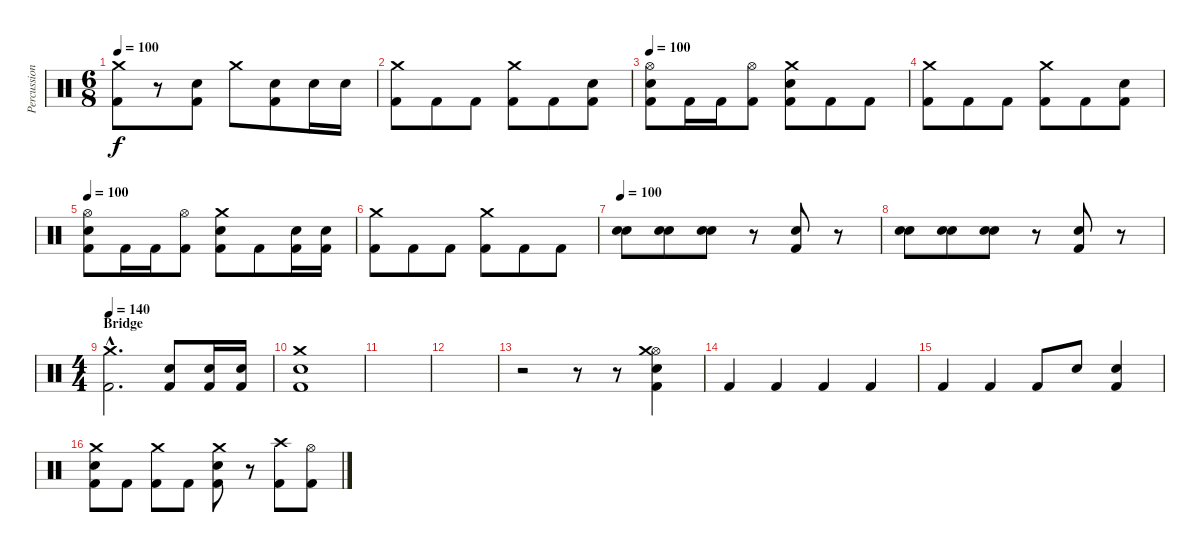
\track ("Percussion" "Percussion") {instrument percussion}
\staff {score}
\articulation defaults
\ts (6 8)
\tempo 100
\clef neutral
\ks c
("Crash medium (hit)" "Kick (hit) 2").8{dy f} r.8 ("Snare (hit) 2" "Kick (hit) 2").8 "Crash medium (hit)".8 ("Snare (hit) 2" "Kick (hit) 2").8 "Snare (hit) 2".16 "Snare (hit) 2".16 |
("Crash medium (hit)" "Kick (hit) 2").8 "Kick (hit) 2".8 "Kick (hit) 2".8 ("Crash medium (hit)" "Kick (hit) 2").8 "Kick (hit) 2".8 ("Snare (hit) 2" "Kick (hit) 2").8 |
\tempo 100
("Hi-Hat (open)" "Snare (hit) 2" "Kick (hit) 2").8 "Kick (hit) 2".16 "Kick (hit) 2".16 ("Hi-Hat (open)" "Kick (hit) 2").8 ("Crash medium (hit)" "Snare (hit) 2" "Kick (hit) 2").8 "Kick (hit) 2".8 "Kick (hit) 2".8 |
("Crash medium (hit)" "Kick (hit) 2").8 "Kick (hit) 2".8 "Kick (hit) 2".8 ("Crash medium (hit)" "Kick (hit) 2").8 "Kick (hit) 2".8 ("Snare (hit) 2" "Kick (hit) 2").8 |
\tempo 100
("Hi-Hat (open)" "Snare (hit) 2" "Kick (hit) 2").8 "Kick (hit) 2".16 "Kick (hit) 2".16 ("Hi-Hat (open)" "Kick (hit) 2").8 ("Crash medium (hit)" "Snare (hit) 2" "Kick (hit) 2").8 "Kick (hit) 2".8 ("Snare (hit) 2" "Kick (hit) 2").16 ("Snare (hit) 2" "Kick (hit) 2").16 |
("Crash medium (hit)" "Kick (hit) 2").8 "Kick (hit) 2".8 "Kick (hit) 2".8 ("Crash medium (hit)" "Kick (hit) 2").8 "Kick (hit) 2".8 "Kick (hit) 2".8 |
\tempo 100
("Snare (hit) 2" "Snare (hit) 2").8 ("Snare (hit) 2" "Snare (hit) 2").8 ("Snare (hit) 2" "Snare (hit) 2").8 r.8 ("Snare (hit) 2" "Kick (hit) 2").8 r.8 |
("Snare (hit) 2" "Snare (hit) 2").8 ("Snare (hit) 2" "Snare (hit) 2").8 ("Snare (hit) 2" "Snare (hit) 2").8 r.8 ("Snare (hit) 2" "Kick (hit) 2").8 r.8 |
\ts (4 4)
\section ("" "Bridge")
\tempo 140
("Crash medium (hit)"{hac} "Kick (hit) 2"{hac}).2{d} ("Snare (hit) 2" "Kick (hit) 2").8 ("Snare (hit) 2" "Kick (hit) 2").16 ("Snare (hit) 2" "Kick (hit) 2").16 |
("Crash medium (hit)" "Snare (hit) 2" "Kick (hit) 2").1 |
|
|
r.2 r.8 r.8 ("Hi-Hat (open)" "Crash medium (hit)" "Snare (hit) 2" "Kick (hit) 2").4 |
"Kick (hit) 2".4 "Kick (hit) 2".4 "Kick (hit) 2".4 "Kick (hit) 2".4 |
"Kick (hit) 2".4 "Kick (hit) 2".4 "Kick (hit) 2".8 "Snare (hit) 2".8 ("Snare (hit) 2" "Kick (hit) 2").4 |
("Crash medium (hit)" "Snare (hit) 2" "Kick (hit) 2").8 "Kick (hit) 2".8 ("Crash medium (hit)" "Kick (hit) 2").8 "Kick (hit) 2".8 ("Crash medium (hit)" "Snare (hit) 2" "Kick (hit) 2").8 r.8 ("Crash high (hit)" "Kick (hit) 2").8 ("Hi-Hat (open)" "Kick (hit) 2").8
